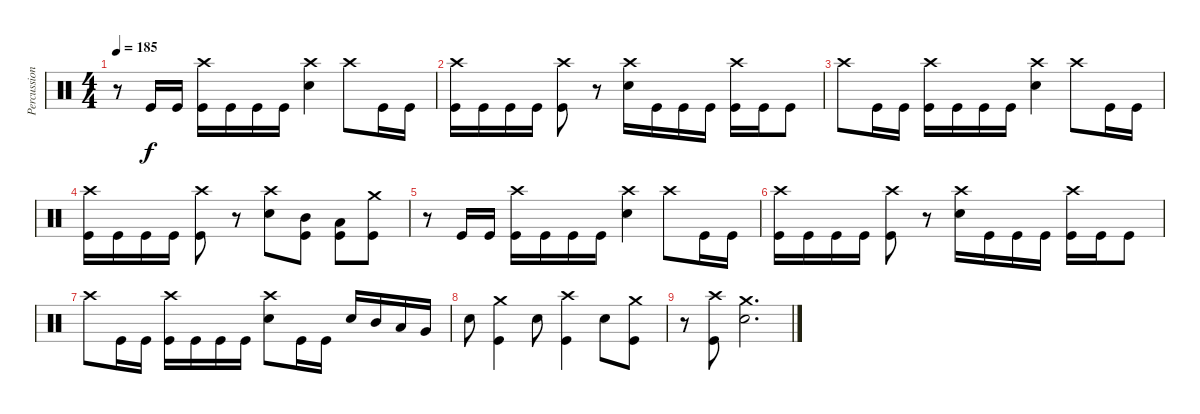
\track ("Percussion" "Percussion") {instrument percussion}
\staff {score}
\articulation defaults
\ts (4 4)
\tempo 185
\clef neutral
\ks c
r.8{dy f} "Kick (hit)".16 "Kick (hit)".16 ("Crash high (hit)" "Kick (hit)").16 "Kick (hit)".16 "Kick (hit)".16 "Kick (hit)".16 ("Crash high (hit)" "Electric Snare (hit)").4 "Crash high (hit)".8 "Kick (hit)".16 "Kick (hit)".16 |
("Crash high (hit)" "Kick (hit)").16 "Kick (hit)".16 "Kick (hit)".16 "Kick (hit)".16 ("Crash high (hit)" "Kick (hit)").8 r.8 ("Crash high (hit)" "Electric Snare (hit)").16 "Kick (hit)".16 "Kick (hit)".16 "Kick (hit)".16 ("Crash high (hit)" "Kick (hit)").16 "Kick (hit)".16 "Kick (hit)".8 |
"Crash high (hit)".8 "Kick (hit)".16 "Kick (hit)".16 ("Crash high (hit)" "Kick (hit)").16 "Kick (hit)".16 "Kick (hit)".16 "Kick (hit)".16 ("Crash high (hit)" "Electric Snare (hit)").4 "Crash high (hit)".8 "Kick (hit)".16 "Kick (hit)".16 |
("Crash high (hit)" "Kick (hit)").16 "Kick (hit)".16 "Kick (hit)".16 "Kick (hit)".16 ("Crash high (hit)" "Kick (hit)").8 r.8 ("Crash high (hit)" "Electric Snare (hit)").8 ("Mid Tom (hit)" "Kick (hit)").8 ("Low Tom (hit)" "Kick (hit)").8 ("Crash medium (hit)" "Kick (hit)").8 |
r.8 "Kick (hit)".16 "Kick (hit)".16 ("Crash high (hit)" "Kick (hit)").16 "Kick (hit)".16 "Kick (hit)".16 "Kick (hit)".16 ("Crash high (hit)" "Electric Snare (hit)").4 "Crash high (hit)".8 "Kick (hit)".16 "Kick (hit)".16 |
("Crash high (hit)" "Kick (hit)").16 "Kick (hit)".16 "Kick (hit)".16 "Kick (hit)".16 ("Crash high (hit)" "Kick (hit)").8 r.8 ("Crash high (hit)" "Electric Snare (hit)").16 "Kick (hit)".16 "Kick (hit)".16 "Kick (hit)".16 ("Crash high (hit)" "Kick (hit)").16 "Kick (hit)".16 "Kick (hit)".8 |
"Crash high (hit)".8 "Kick (hit)".16 "Kick (hit)".16 ("Crash high (hit)" "Kick (hit)").16 "Kick (hit)".16 "Kick (hit)".16 "Kick (hit)".16 ("Crash high (hit)" "Electric Snare (hit)").8 "Kick (hit)".16 "Kick (hit)".16 "Electric Snare (hit)".16 "Mid Tom (hit)".16 "Low Tom (hit)".16 "Very Low Tom (hit)".16 |
"Electric Snare (hit)".8 ("Crash medium (hit)" "Kick (hit)").4 "Electric Snare (hit)".8 ("Crash high (hit)" "Kick (hit)").4 "Electric Snare (hit)".8 ("Crash medium (hit)" "Kick (hit)").8 |
r.8 ("Crash high (hit)" "Kick (hit)").8 ("Crash medium (hit)" "Electric Snare (hit)").2{d}
